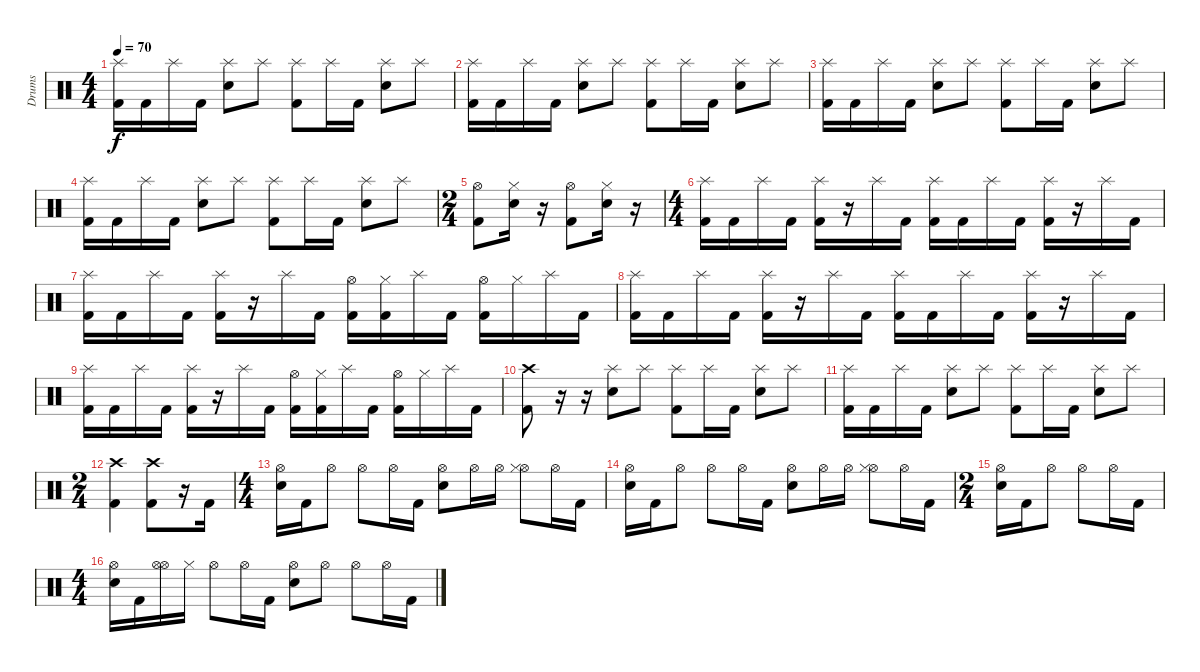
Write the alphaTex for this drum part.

\track ("Drums" "Drums") {instrument percussion}
\staff {score}
\articulation defaults
\ts (4 4)
\tempo 70
\clef neutral
\ks c
("Splash (hit)" "Kick (hit) 2").16{dy f} "Kick (hit) 2".16 "Splash (hit)".16 "Kick (hit) 2".16 ("Splash (hit)" "Snare (hit) 2").8 "Splash (hit)".8 ("Splash (hit)" "Kick (hit) 2").8 "Splash (hit)".16 "Kick (hit) 2".16 ("Splash (hit)" "Snare (hit) 2").8 "Splash (hit)".8 |
("Splash (hit)" "Kick (hit) 2").16 "Kick (hit) 2".16 "Splash (hit)".16 "Kick (hit) 2".16 ("Splash (hit)" "Snare (hit) 2").8 "Splash (hit)".8 ("Splash (hit)" "Kick (hit) 2").8 "Splash (hit)".16 "Kick (hit) 2".16 ("Splash (hit)" "Snare (hit) 2").8 "Splash (hit)".8 |
("Splash (hit)" "Kick (hit) 2").16 "Kick (hit) 2".16 "Splash (hit)".16 "Kick (hit) 2".16 ("Splash (hit)" "Snare (hit) 2").8 "Splash (hit)".8 ("Splash (hit)" "Kick (hit) 2").8 "Splash (hit)".16 "Kick (hit) 2".16 ("Splash (hit)" "Snare (hit) 2").8 "Splash (hit)".8 |
("Splash (hit)" "Kick (hit) 2").16 "Kick (hit) 2".16 "Splash (hit)".16 "Kick (hit) 2".16 ("Splash (hit)" "Snare (hit) 2").8 "Splash (hit)".8 ("Splash (hit)" "Kick (hit) 2").8 "Splash (hit)".16 "Kick (hit) 2".16 ("Splash (hit)" "Snare (hit) 2").8 "Splash (hit)".8 |
\ts (2 4)
("Hi-Hat (open)" "Kick (hit) 2").8 ("Hi-Hat (closed)" "Snare (hit) 2").16 r.16 ("Hi-Hat (open)" "Kick (hit) 2").8 ("Hi-Hat (closed)" "Snare (hit) 2").16 r.16 |
\ts (4 4)
("Splash (hit)" "Kick (hit) 2").16 "Kick (hit) 2".16 "Splash (hit)".16 "Kick (hit) 2".16 ("Splash (hit)" "Kick (hit) 2").16 r.16 "Splash (hit)".16 "Kick (hit) 2".16 ("Splash (hit)" "Kick (hit) 2").16 "Kick (hit) 2".16 "Splash (hit)".16 "Kick (hit) 2".16 ("Splash (hit)" "Kick (hit) 2").16 r.16 "Splash (hit)".16 "Kick (hit) 2".16 |
("Splash (hit)" "Kick (hit) 2").16 "Kick (hit) 2".16 "Splash (hit)".16 "Kick (hit) 2".16 ("Splash (hit)" "Kick (hit) 2").16 r.16 "Splash (hit)".16 "Kick (hit) 2".16 ("Hi-Hat (open)" "Kick (hit) 2").16 ("Hi-Hat (closed)" "Kick (hit) 2").16 "Splash (hit)".16 "Kick (hit) 2".16 ("Hi-Hat (open)" "Kick (hit) 2").16 "Hi-Hat (closed)".16 "Splash (hit)".16 "Kick (hit) 2".16 |
("Splash (hit)" "Kick (hit) 2").16 "Kick (hit) 2".16 "Splash (hit)".16 "Kick (hit) 2".16 ("Splash (hit)" "Kick (hit) 2").16 r.16 "Splash (hit)".16 "Kick (hit) 2".16 ("Splash (hit)" "Kick (hit) 2").16 "Kick (hit) 2".16 "Splash (hit)".16 "Kick (hit) 2".16 ("Splash (hit)" "Kick (hit) 2").16 r.16 "Splash (hit)".16 "Kick (hit) 2".16 |
("Splash (hit)" "Kick (hit) 2").16 "Kick (hit) 2".16 "Splash (hit)".16 "Kick (hit) 2".16 ("Splash (hit)" "Kick (hit) 2").16 r.16 "Splash (hit)".16 "Kick (hit) 2".16 ("Hi-Hat (open)" "Kick (hit) 2").16 ("Hi-Hat (closed)" "Kick (hit) 2").16 "Splash (hit)".16 "Kick (hit) 2".16 ("Hi-Hat (open)" "Kick (hit) 2").16 "Hi-Hat (closed)".16 "Splash (hit)".16 "Kick (hit) 2".16 |
("Crash high (hit)" "Kick (hit) 2").8 r.16 r.16 ("Splash (hit)" "Snare (hit) 2").8 "Splash (hit)".8 ("Splash (hit)" "Kick (hit) 2").8 "Splash (hit)".16 "Kick (hit) 2".16 ("Splash (hit)" "Snare (hit) 2").8 "Splash (hit)".8 |
("Splash (hit)" "Kick (hit) 2").16 "Kick (hit) 2".16 "Splash (hit)".16 "Kick (hit) 2".16 ("Splash (hit)" "Snare (hit) 2").8 "Splash (hit)".8 ("Splash (hit)" "Kick (hit) 2").8 "Splash (hit)".16 "Kick (hit) 2".16 ("Splash (hit)" "Snare (hit) 2").8 "Splash (hit)".8 |
\ts (2 4)
("Crash high (hit)" "Kick (hit) 2").4 ("Crash high (hit)" "Kick (hit) 2").8 r.16 "Kick (hit) 2".16 |
\ts (4 4)
("Hi-Hat (open)" "Snare (hit) 2").16 "Kick (hit) 2".16 "Hi-Hat (open)".8 "Hi-Hat (open)".8 "Hi-Hat (open)".16 "Kick (hit) 2".16 ("Hi-Hat (open)" "Snare (hit) 2").8 "Hi-Hat (open)".16 "Hi-Hat (open)".16 ("Hi-Hat (open)" "Hi-Hat (closed)").8 "Hi-Hat (open)".16 "Kick (hit) 2".16 |
("Hi-Hat (open)" "Snare (hit) 2").16 "Kick (hit) 2".16 "Hi-Hat (open)".8 "Hi-Hat (open)".8 "Hi-Hat (open)".16 "Kick (hit) 2".16 ("Hi-Hat (open)" "Snare (hit) 2").8 "Hi-Hat (open)".16 "Hi-Hat (open)".16 ("Hi-Hat (open)" "Hi-Hat (closed)").8 "Hi-Hat (open)".16 "Kick (hit) 2".16 |
\ts (2 4)
("Hi-Hat (open)" "Snare (hit) 2").16 "Kick (hit) 2".16 "Hi-Hat (open)".8 "Hi-Hat (open)".8 "Hi-Hat (open)".16 "Kick (hit) 2".16 |
\ts (4 4)
("Hi-Hat (open)" "Snare (hit) 2").16 "Kick (hit) 2".16 ("Hi-Hat (open)" "Hi-Hat (open)").16 "Hi-Hat (closed)".16 "Hi-Hat (open)".8 "Hi-Hat (open)".16 "Kick (hit) 2".16 ("Hi-Hat (open)" "Snare (hit) 2").8 "Hi-Hat (open)".8 "Hi-Hat (open)".8 "Hi-Hat (open)".16 "Kick (hit) 2".16
